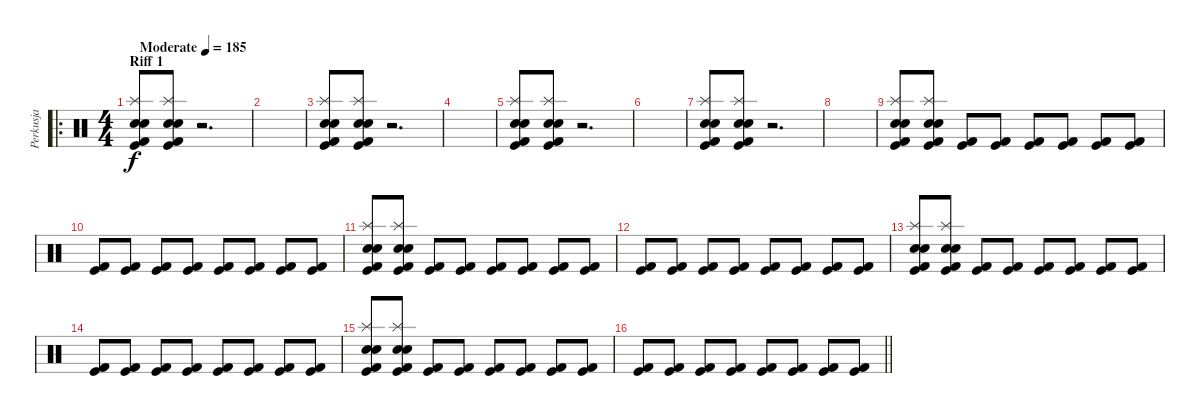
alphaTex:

\track ("Perkusja" "Perkusja") {instrument percussion}
\staff {score}
\articulation defaults
\ro
\ts (4 4)
\section ("" "Riff 1")
\tempo (185 "Moderate")
\clef neutral
\ks c
("Electric Snare (hit)" "Splash (hit)" "Snare (hit) 2" "Kick (hit) 2" "Kick (hit)").8{dy f} ("Electric Snare (hit)" "Splash (hit)" "Snare (hit) 2" "Kick (hit) 2" "Kick (hit)").8 r.2{d} |
|
("Electric Snare (hit)" "Splash (hit)" "Snare (hit) 2" "Kick (hit) 2" "Kick (hit)").8 ("Electric Snare (hit)" "Splash (hit)" "Snare (hit) 2" "Kick (hit) 2" "Kick (hit)").8 r.2{d} |
|
("Electric Snare (hit)" "Splash (hit)" "Snare (hit) 2" "Kick (hit) 2" "Kick (hit)").8 ("Electric Snare (hit)" "Splash (hit)" "Snare (hit) 2" "Kick (hit) 2" "Kick (hit)").8 r.2{d} |
|
("Electric Snare (hit)" "Splash (hit)" "Snare (hit) 2" "Kick (hit) 2" "Kick (hit)").8 ("Electric Snare (hit)" "Splash (hit)" "Snare (hit) 2" "Kick (hit) 2" "Kick (hit)").8 r.2{d} |
|
("Electric Snare (hit)" "Splash (hit)" "Snare (hit) 2" "Kick (hit) 2" "Kick (hit)").8 ("Electric Snare (hit)" "Splash (hit)" "Snare (hit) 2" "Kick (hit) 2" "Kick (hit)").8 ("Kick (hit) 2" "Kick (hit)").8 ("Kick (hit) 2" "Kick (hit)").8 ("Kick (hit) 2" "Kick (hit)").8 ("Kick (hit) 2" "Kick (hit)").8 ("Kick (hit) 2" "Kick (hit)").8 ("Kick (hit) 2" "Kick (hit)").8 |
("Kick (hit) 2" "Kick (hit)").8 ("Kick (hit) 2" "Kick (hit)").8 ("Kick (hit) 2" "Kick (hit)").8 ("Kick (hit) 2" "Kick (hit)").8 ("Kick (hit) 2" "Kick (hit)").8 ("Kick (hit) 2" "Kick (hit)").8 ("Kick (hit) 2" "Kick (hit)").8 ("Kick (hit) 2" "Kick (hit)").8 |
("Electric Snare (hit)" "Splash (hit)" "Snare (hit) 2" "Kick (hit) 2" "Kick (hit)").8 ("Electric Snare (hit)" "Splash (hit)" "Snare (hit) 2" "Kick (hit) 2" "Kick (hit)").8 ("Kick (hit) 2" "Kick (hit)").8 ("Kick (hit) 2" "Kick (hit)").8 ("Kick (hit) 2" "Kick (hit)").8 ("Kick (hit) 2" "Kick (hit)").8 ("Kick (hit) 2" "Kick (hit)").8 ("Kick (hit) 2" "Kick (hit)").8 |
("Kick (hit) 2" "Kick (hit)").8 ("Kick (hit) 2" "Kick (hit)").8 ("Kick (hit) 2" "Kick (hit)").8 ("Kick (hit) 2" "Kick (hit)").8 ("Kick (hit) 2" "Kick (hit)").8 ("Kick (hit) 2" "Kick (hit)").8 ("Kick (hit) 2" "Kick (hit)").8 ("Kick (hit) 2" "Kick (hit)").8 |
("Electric Snare (hit)" "Splash (hit)" "Snare (hit) 2" "Kick (hit) 2" "Kick (hit)").8 ("Electric Snare (hit)" "Splash (hit)" "Snare (hit) 2" "Kick (hit) 2" "Kick (hit)").8 ("Kick (hit) 2" "Kick (hit)").8 ("Kick (hit) 2" "Kick (hit)").8 ("Kick (hit) 2" "Kick (hit)").8 ("Kick (hit) 2" "Kick (hit)").8 ("Kick (hit) 2" "Kick (hit)").8 ("Kick (hit) 2" "Kick (hit)").8 |
("Kick (hit) 2" "Kick (hit)").8 ("Kick (hit) 2" "Kick (hit)").8 ("Kick (hit) 2" "Kick (hit)").8 ("Kick (hit) 2" "Kick (hit)").8 ("Kick (hit) 2" "Kick (hit)").8 ("Kick (hit) 2" "Kick (hit)").8 ("Kick (hit) 2" "Kick (hit)").8 ("Kick (hit) 2" "Kick (hit)").8 |
("Electric Snare (hit)" "Splash (hit)" "Snare (hit) 2" "Kick (hit) 2" "Kick (hit)").8 ("Electric Snare (hit)" "Splash (hit)" "Snare (hit) 2" "Kick (hit) 2" "Kick (hit)").8 ("Kick (hit) 2" "Kick (hit)").8 ("Kick (hit) 2" "Kick (hit)").8 ("Kick (hit) 2" "Kick (hit)").8 ("Kick (hit) 2" "Kick (hit)").8 ("Kick (hit) 2" "Kick (hit)").8 ("Kick (hit) 2" "Kick (hit)").8 |
\barLineRight lightlight
("Kick (hit) 2" "Kick (hit)").8 ("Kick (hit) 2" "Kick (hit)").8 ("Kick (hit) 2" "Kick (hit)").8 ("Kick (hit) 2" "Kick (hit)").8 ("Kick (hit) 2" "Kick (hit)").8 ("Kick (hit) 2" "Kick (hit)").8 ("Kick (hit) 2" "Kick (hit)").8 ("Kick (hit) 2" "Kick (hit)").8
